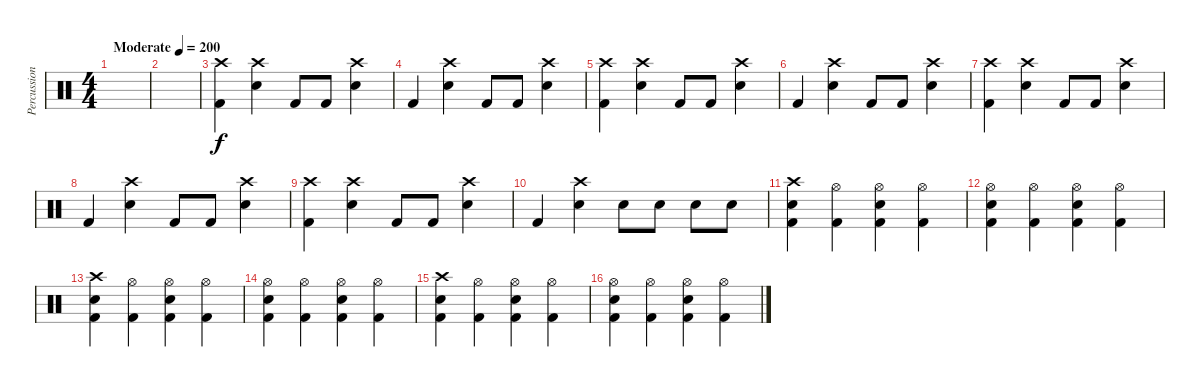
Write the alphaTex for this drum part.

\track ("Percussion" "Percussion") {instrument percussion}
\staff {score}
\articulation defaults
\ts (4 4)
\tempo (200 "Moderate")
\clef neutral
\ks c
|
|
("Crash high (hit)" "Kick (hit) 2").4 ("Crash high (hit)" "Snare (hit) 2").4 "Kick (hit) 2".8 "Kick (hit) 2".8 ("Crash high (hit)" "Snare (hit) 2").4 |
"Kick (hit) 2".4 ("Crash high (hit)" "Snare (hit) 2").4 "Kick (hit) 2".8 "Kick (hit) 2".8 ("Crash high (hit)" "Snare (hit) 2").4 |
("Crash high (hit)" "Kick (hit) 2").4 ("Crash high (hit)" "Snare (hit) 2").4 "Kick (hit) 2".8 "Kick (hit) 2".8 ("Crash high (hit)" "Snare (hit) 2").4 |
"Kick (hit) 2".4 ("Crash high (hit)" "Snare (hit) 2").4 "Kick (hit) 2".8 "Kick (hit) 2".8 ("Crash high (hit)" "Snare (hit) 2").4 |
("Crash high (hit)" "Kick (hit) 2").4 ("Crash high (hit)" "Snare (hit) 2").4 "Kick (hit) 2".8 "Kick (hit) 2".8 ("Crash high (hit)" "Snare (hit) 2").4 |
"Kick (hit) 2".4 ("Crash high (hit)" "Snare (hit) 2").4 "Kick (hit) 2".8 "Kick (hit) 2".8 ("Crash high (hit)" "Snare (hit) 2").4 |
("Crash high (hit)" "Kick (hit) 2").4 ("Crash high (hit)" "Snare (hit) 2").4 "Kick (hit) 2".8 "Kick (hit) 2".8 ("Crash high (hit)" "Snare (hit) 2").4 |
"Kick (hit) 2".4 ("Crash high (hit)" "Snare (hit) 2").4 "Snare (hit) 2".8 "Snare (hit) 2".8 "Snare (hit) 2".8 "Snare (hit) 2".8 |
("Crash high (hit)" "Snare (hit) 2" "Kick (hit) 2").4 ("Hi-Hat (open)" "Kick (hit) 2").4 ("Hi-Hat (open)" "Snare (hit) 2" "Kick (hit) 2").4 ("Hi-Hat (open)" "Kick (hit) 2").4 |
("Hi-Hat (open)" "Snare (hit) 2" "Kick (hit) 2").4 ("Hi-Hat (open)" "Kick (hit) 2").4 ("Hi-Hat (open)" "Snare (hit) 2" "Kick (hit) 2").4 ("Hi-Hat (open)" "Kick (hit) 2").4 |
("Crash high (hit)" "Snare (hit) 2" "Kick (hit) 2").4 ("Hi-Hat (open)" "Kick (hit) 2").4 ("Hi-Hat (open)" "Snare (hit) 2" "Kick (hit) 2").4 ("Hi-Hat (open)" "Kick (hit) 2").4 |
("Hi-Hat (open)" "Snare (hit) 2" "Kick (hit) 2").4 ("Hi-Hat (open)" "Kick (hit) 2").4 ("Hi-Hat (open)" "Snare (hit) 2" "Kick (hit) 2").4 ("Hi-Hat (open)" "Kick (hit) 2").4 |
("Crash high (hit)" "Snare (hit) 2" "Kick (hit) 2").4 ("Hi-Hat (open)" "Kick (hit) 2").4 ("Hi-Hat (open)" "Snare (hit) 2" "Kick (hit) 2").4 ("Hi-Hat (open)" "Kick (hit) 2").4 |
("Hi-Hat (open)" "Snare (hit) 2" "Kick (hit) 2").4 ("Hi-Hat (open)" "Kick (hit) 2").4 ("Hi-Hat (open)" "Snare (hit) 2" "Kick (hit) 2").4 ("Hi-Hat (open)" "Kick (hit) 2").4
